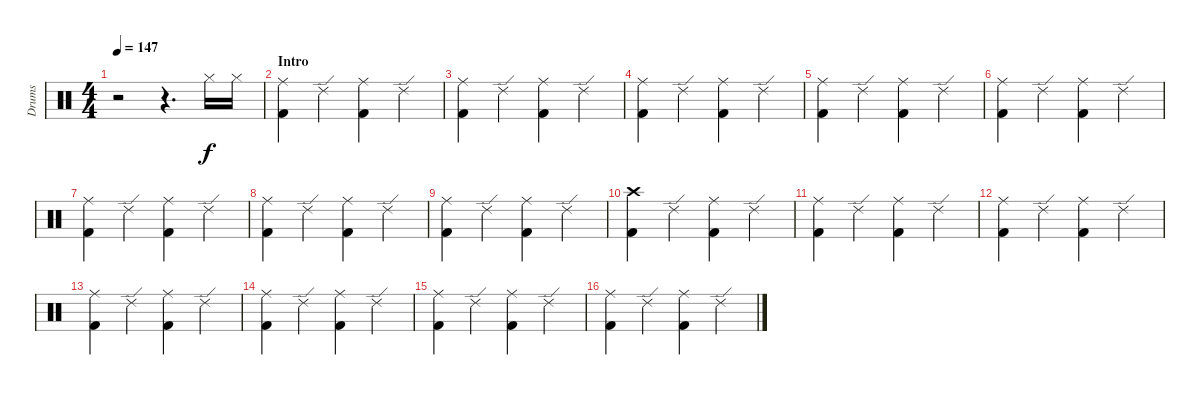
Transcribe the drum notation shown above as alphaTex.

\track ("Drums" "Drums") {instrument percussion}
\staff {score}
\articulation defaults
\ts (4 4)
\tempo 147
\clef neutral
\ks c
r.2{dy f} r.4{d} "Hi-Hat (closed)".16 "Hi-Hat (closed)".16 |
\section ("" "Intro")
("Ride (middle)" "Kick (hit) 2").4 "Ride (edge) 2".4 ("Ride (middle)" "Kick (hit) 2").4 "Ride (edge) 2".4 |
("Ride (middle)" "Kick (hit) 2").4 "Ride (edge) 2".4 ("Ride (middle)" "Kick (hit) 2").4 "Ride (edge) 2".4 |
("Ride (middle)" "Kick (hit) 2").4 "Ride (edge) 2".4 ("Ride (middle)" "Kick (hit) 2").4 "Ride (edge) 2".4 |
("Ride (middle)" "Kick (hit) 2").4 "Ride (edge) 2".4 ("Ride (middle)" "Kick (hit) 2").4 "Ride (edge) 2".4 |
("Ride (middle)" "Kick (hit) 2").4 "Ride (edge) 2".4 ("Ride (middle)" "Kick (hit) 2").4 "Ride (edge) 2".4 |
("Ride (middle)" "Kick (hit) 2").4 "Ride (edge) 2".4 ("Ride (middle)" "Kick (hit) 2").4 "Ride (edge) 2".4 |
("Ride (middle)" "Kick (hit) 2").4 "Ride (edge) 2".4 ("Ride (middle)" "Kick (hit) 2").4 "Ride (edge) 2".4 |
("Ride (middle)" "Kick (hit) 2").4 "Ride (edge) 2".4 ("Ride (middle)" "Kick (hit) 2").4 "Ride (edge) 2".4 |
("Crash high (hit)" "Kick (hit) 2").4 "Ride (edge) 2".4 ("Ride (middle)" "Kick (hit) 2").4 "Ride (edge) 2".4 |
("Ride (middle)" "Kick (hit) 2").4 "Ride (edge) 2".4 ("Ride (middle)" "Kick (hit) 2").4 "Ride (edge) 2".4 |
("Ride (middle)" "Kick (hit) 2").4 "Ride (edge) 2".4 ("Ride (middle)" "Kick (hit) 2").4 "Ride (edge) 2".4 |
("Ride (middle)" "Kick (hit) 2").4 "Ride (edge) 2".4 ("Ride (middle)" "Kick (hit) 2").4 "Ride (edge) 2".4 |
("Ride (middle)" "Kick (hit) 2").4 "Ride (edge) 2".4 ("Ride (middle)" "Kick (hit) 2").4 "Ride (edge) 2".4 |
("Ride (middle)" "Kick (hit) 2").4 "Ride (edge) 2".4 ("Ride (middle)" "Kick (hit) 2").4 "Ride (edge) 2".4 |
("Ride (middle)" "Kick (hit) 2").4 "Ride (edge) 2".4 ("Ride (middle)" "Kick (hit) 2").4 "Ride (edge) 2".4
